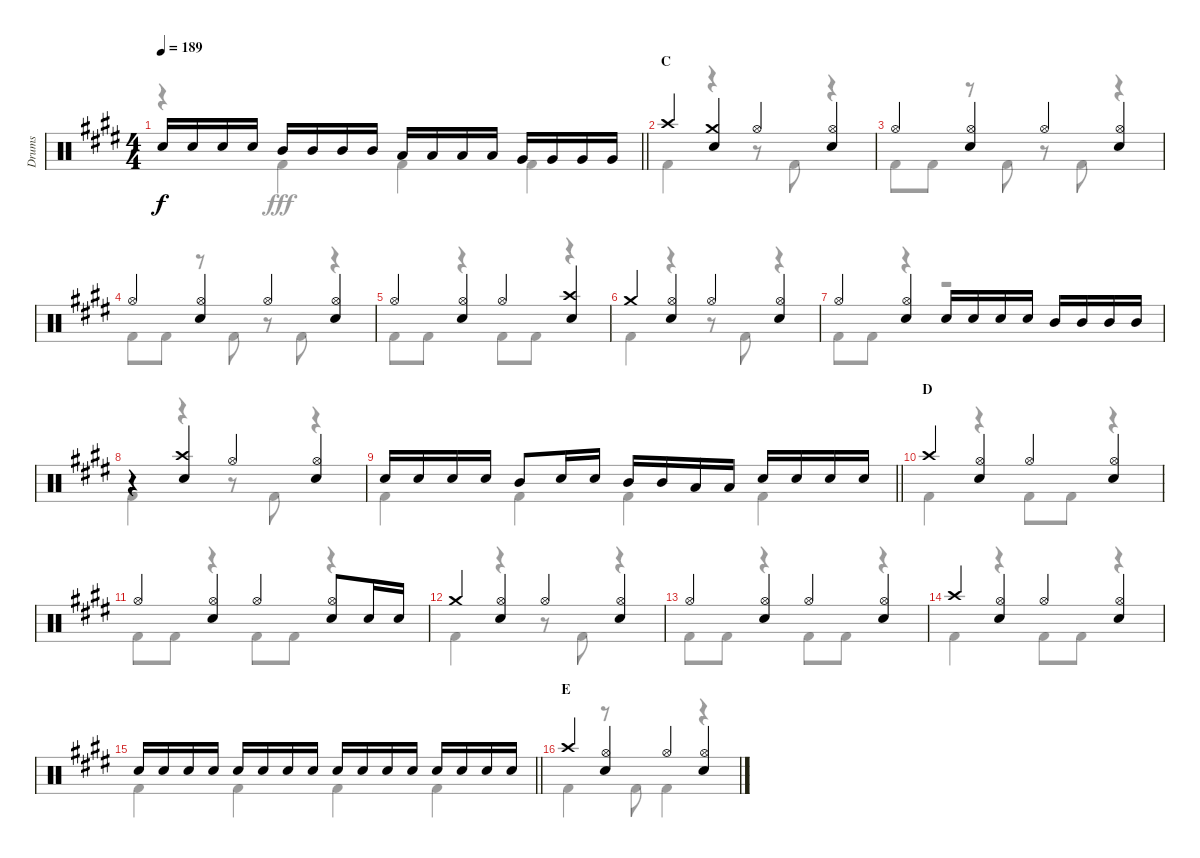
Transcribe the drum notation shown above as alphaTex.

\track ("Drums" "Drums") {instrument percussion}
\staff {score}
\articulation defaults
\voice
\ts (4 4)
\tempo 189
\clef neutral
\barLineRight lightlight
\ks e "Snare (hit) 2".16{dy f} "Snare (hit) 2".16 "Snare (hit) 2".16 "Snare (hit) 2".16 "Mid Tom (hit)".16 "Mid Tom (hit)".16 "Mid Tom (hit)".16 "Mid Tom (hit)".16 "Low Tom (hit)".16 "Low Tom (hit)".16 "Low Tom (hit)".16 "Low Tom (hit)".16 "Very Low Tom (hit)".16 "Very Low Tom (hit)".16 "Very Low Tom (hit)".16 "Very Low Tom (hit)".16
|
\section ("" "C")
"Crash high (hit)".4 ("Crash medium (hit)" "Snare (hit) 2").4 "Hi-Hat (open)".4 ("Hi-Hat (open)" "Snare (hit) 2").4 |
"Hi-Hat (open)".4 ("Hi-Hat (open)" "Snare (hit) 2").4 "Hi-Hat (open)".4 ("Hi-Hat (open)" "Snare (hit) 2").4 |
"Hi-Hat (open)".4 ("Hi-Hat (open)" "Snare (hit) 2").4 "Hi-Hat (open)".4 ("Hi-Hat (open)" "Snare (hit) 2").4 |
"Hi-Hat (open)".4 ("Hi-Hat (open)" "Snare (hit) 2").4 "Hi-Hat (open)".4 ("Crash high (hit)" "Snare (hit) 2").4 |
"Crash medium (hit)".4 ("Hi-Hat (open)" "Snare (hit) 2").4 "Hi-Hat (open)".4 ("Hi-Hat (open)" "Snare (hit) 2").4 |
"Hi-Hat (open)".4 ("Hi-Hat (open)" "Snare (hit) 2").4 "Snare (hit) 2".16 "Snare (hit) 2".16 "Snare (hit) 2".16 "Snare (hit) 2".16 "Mid Tom (hit)".16 "Mid Tom (hit)".16 "Mid Tom (hit)".16 "Mid Tom (hit)".16 |
r.4 ("Crash high (hit)" "Snare (hit) 2").4 "Hi-Hat (open)".4 ("Hi-Hat (open)" "Snare (hit) 2").4 |
\barLineRight lightlight "Snare (hit) 2".16 "Snare (hit) 2".16 "Snare (hit) 2".16 "Snare (hit) 2".16 "Mid Tom (hit)".8 "Snare (hit) 2".16 "Snare (hit) 2".16 "Mid Tom (hit)".16 "Mid Tom (hit)".16 "Low Tom (hit)".16 "Low Tom (hit)".16 "Snare (hit) 2".16 "Snare (hit) 2".16 "Snare (hit) 2".16 "Snare (hit) 2".16
|
\section ("" "D")
"Crash high (hit)".4 ("Hi-Hat (open)" "Snare (hit) 2").4 "Hi-Hat (open)".4 ("Hi-Hat (open)" "Snare (hit) 2").4 |
"Hi-Hat (open)".4 ("Hi-Hat (open)" "Snare (hit) 2").4 "Hi-Hat (open)".4 ("Hi-Hat (open)" "Snare (hit) 2").8 "Snare (hit) 2".16 "Snare (hit) 2".16 |
"Crash medium (hit)".4 ("Hi-Hat (open)" "Snare (hit) 2").4 "Hi-Hat (open)".4 ("Hi-Hat (open)" "Snare (hit) 2").4 |
"Hi-Hat (open)".4 ("Hi-Hat (open)" "Snare (hit) 2").4 "Hi-Hat (open)".4 ("Hi-Hat (open)" "Snare (hit) 2").4 |
"Crash high (hit)".4 ("Hi-Hat (open)" "Snare (hit) 2").4 "Hi-Hat (open)".4 ("Hi-Hat (open)" "Snare (hit) 2").4 |
\barLineRight lightlight "Snare (hit) 2".16 "Snare (hit) 2".16 "Snare (hit) 2".16 "Snare (hit) 2".16 "Snare (hit) 2".16 "Snare (hit) 2".16 "Snare (hit) 2".16 "Snare (hit) 2".16 "Snare (hit) 2".16 "Snare (hit) 2".16 "Snare (hit) 2".16 "Snare (hit) 2".16 "Snare (hit) 2".16 "Snare (hit) 2".16 "Snare (hit) 2".16 "Snare (hit) 2".16
|
\section ("" "E")
"Crash high (hit)".4 ("Hi-Hat (open)" "Snare (hit) 2").4 "Hi-Hat (open)".4 ("Hi-Hat (open)" "Snare (hit) 2").4
\voice
\clef neutral
\ottava regular
\simile none
\barLineRight lightlight
\ks e
r.4{dy fff} "Kick (hit) 2".4 "Kick (hit) 2".4 "Kick (hit) 2".4 |
"Kick (hit) 2".4 r.4 r.8 "Kick (hit) 2".8 r.4 |
"Kick (hit) 2".8 "Kick (hit) 2".8 r.8 "Kick (hit) 2".8 r.8 "Kick (hit) 2".8 r.4 |
"Kick (hit) 2".8 "Kick (hit) 2".8 r.8 "Kick (hit) 2".8 r.8 "Kick (hit) 2".8 r.4 |
"Kick (hit) 2".8 "Kick (hit) 2".8 r.4 "Kick (hit) 2".8 "Kick (hit) 2".8 r.4 |
"Kick (hit) 2".4 r.4 r.8 "Kick (hit) 2".8 r.4 |
"Kick (hit) 2".8 "Kick (hit) 2".8 r.4 r.2 |
"Kick (hit) 2".4 r.4 r.8 "Kick (hit) 2".8 r.4 |
\barLineRight lightlight "Kick (hit) 2".4 "Kick (hit) 2".4 "Kick (hit) 2".4 "Kick (hit) 2".4
|
"Kick (hit) 2".4 r.4 "Kick (hit) 2".8 "Kick (hit) 2".8 r.4 |
"Kick (hit) 2".8 "Kick (hit) 2".8 r.4 "Kick (hit) 2".8 "Kick (hit) 2".8 r.4 |
"Kick (hit) 2".4 r.4 r.8 "Kick (hit) 2".8 r.4 |
"Kick (hit) 2".8 "Kick (hit) 2".8 r.4 "Kick (hit) 2".8 "Kick (hit) 2".8 r.4 |
"Kick (hit) 2".4 r.4 "Kick (hit) 2".8 "Kick (hit) 2".8 r.4 |
\barLineRight lightlight "Kick (hit) 2".4 "Kick (hit) 2".4 "Kick (hit) 2".4 "Kick (hit) 2".4
|
"Kick (hit) 2".4 r.8 "Kick (hit) 2".8 "Kick (hit) 2".4 r.4
